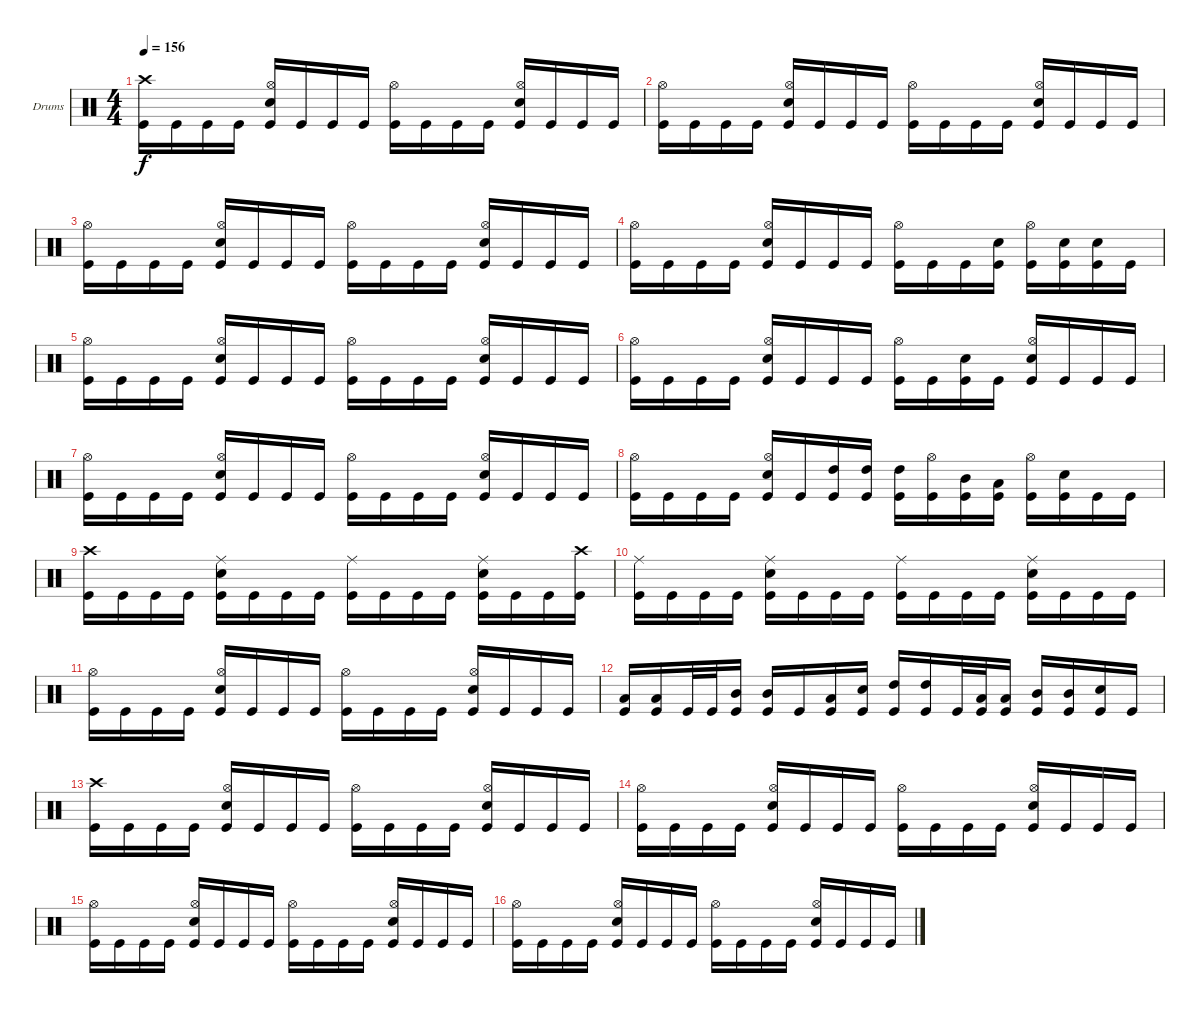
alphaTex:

\bracketExtendMode groupsimilarinstruments
\firstSystemTrackNameOrientation horizontal
\otherSystemsTrackNameOrientation horizontal
\track ("Drumkit" "Drums") {instrument percussion}
\staff {score}
\articulation defaults
\ts (4 4)
\beaming (8 2 2 2 2)
\tempo 156
\clef neutral
\ks c
("Crash high (hit)" "Kick (hit)").16{dy f} "Kick (hit)".16 "Kick (hit)".16 "Kick (hit)".16 ("Hi-Hat (open)" "Snare (hit) 2" "Kick (hit)").16 "Kick (hit)".16 "Kick (hit)".16 "Kick (hit)".16 ("Hi-Hat (open)" "Kick (hit)").16 "Kick (hit)".16 "Kick (hit)".16 "Kick (hit)".16 ("Hi-Hat (open)" "Snare (hit) 2" "Kick (hit)").16 "Kick (hit)".16 "Kick (hit)".16 "Kick (hit)".16 |
("Hi-Hat (open)" "Kick (hit)").16 "Kick (hit)".16 "Kick (hit)".16 "Kick (hit)".16 ("Hi-Hat (open)" "Snare (hit) 2" "Kick (hit)").16 "Kick (hit)".16 "Kick (hit)".16 "Kick (hit)".16 ("Hi-Hat (open)" "Kick (hit)").16 "Kick (hit)".16 "Kick (hit)".16 "Kick (hit)".16 ("Hi-Hat (open)" "Snare (hit) 2" "Kick (hit)").16 "Kick (hit)".16 "Kick (hit)".16 "Kick (hit)".16 |
("Hi-Hat (open)" "Kick (hit)").16 "Kick (hit)".16 "Kick (hit)".16 "Kick (hit)".16 ("Hi-Hat (open)" "Snare (hit) 2" "Kick (hit)").16 "Kick (hit)".16 "Kick (hit)".16 "Kick (hit)".16 ("Hi-Hat (open)" "Kick (hit)").16 "Kick (hit)".16 "Kick (hit)".16 "Kick (hit)".16 ("Hi-Hat (open)" "Snare (hit) 2" "Kick (hit)").16 "Kick (hit)".16 "Kick (hit)".16 "Kick (hit)".16 |
("Hi-Hat (open)" "Kick (hit)").16 "Kick (hit)".16 "Kick (hit)".16 "Kick (hit)".16 ("Hi-Hat (open)" "Snare (hit) 2" "Kick (hit)").16 "Kick (hit)".16 "Kick (hit)".16 "Kick (hit)".16 ("Hi-Hat (open)" "Kick (hit)").16 "Kick (hit)".16 "Kick (hit)".16 ("Snare (hit) 2" "Kick (hit)").16 ("Hi-Hat (open)" "Kick (hit)").16 ("Snare (hit) 2" "Kick (hit)").16 ("Snare (hit) 2" "Kick (hit)").16 "Kick (hit)".16 |
("Hi-Hat (open)" "Kick (hit)").16 "Kick (hit)".16 "Kick (hit)".16 "Kick (hit)".16 ("Hi-Hat (open)" "Snare (hit) 2" "Kick (hit)").16 "Kick (hit)".16 "Kick (hit)".16 "Kick (hit)".16 ("Hi-Hat (open)" "Kick (hit)").16 "Kick (hit)".16 "Kick (hit)".16 "Kick (hit)".16 ("Hi-Hat (open)" "Snare (hit) 2" "Kick (hit)").16 "Kick (hit)".16 "Kick (hit)".16 "Kick (hit)".16 |
("Hi-Hat (open)" "Kick (hit)").16 "Kick (hit)".16 "Kick (hit)".16 "Kick (hit)".16 ("Hi-Hat (open)" "Snare (hit) 2" "Kick (hit)").16 "Kick (hit)".16 "Kick (hit)".16 "Kick (hit)".16 ("Hi-Hat (open)" "Kick (hit)").16 "Kick (hit)".16 ("Snare (hit) 2" "Kick (hit)").16 "Kick (hit)".16 ("Hi-Hat (open)" "Snare (hit) 2" "Kick (hit)").16 "Kick (hit)".16 "Kick (hit)".16 "Kick (hit)".16 |
("Hi-Hat (open)" "Kick (hit)").16 "Kick (hit)".16 "Kick (hit)".16 "Kick (hit)".16 ("Hi-Hat (open)" "Snare (hit) 2" "Kick (hit)").16 "Kick (hit)".16 "Kick (hit)".16 "Kick (hit)".16 ("Hi-Hat (open)" "Kick (hit)").16 "Kick (hit)".16 "Kick (hit)".16 "Kick (hit)".16 ("Hi-Hat (open)" "Snare (hit) 2" "Kick (hit)").16 "Kick (hit)".16 "Kick (hit)".16 "Kick (hit)".16 |
("Hi-Hat (open)" "Kick (hit)").16 "Kick (hit)".16 "Kick (hit)".16 "Kick (hit)".16 ("Hi-Hat (open)" "Snare (hit) 2" "Kick (hit)").16 "Kick (hit)".16 ("High Tom (hit)" "Kick (hit)").16 ("High Tom (hit)" "Kick (hit)").16 ("High Tom (hit)" "Kick (hit)").16 ("Hi-Hat (open)" "Kick (hit)").16 ("Mid Tom (hit)" "Kick (hit)").16 ("Low Tom (hit)" "Kick (hit)").16 ("Hi-Hat (open)" "Kick (hit)").16 ("Snare (hit) 2" "Kick (hit)").16 "Kick (hit)".16 "Kick (hit)".16 |
("Crash high (hit)" "Kick (hit)").16 "Kick (hit)".16 "Kick (hit)".16 "Kick (hit)".16 ("Ride (middle)" "Snare (hit) 2" "Kick (hit)").16 "Kick (hit)".16 "Kick (hit)".16 "Kick (hit)".16 ("Ride (middle)" "Kick (hit)").16 "Kick (hit)".16 "Kick (hit)".16 "Kick (hit)".16 ("Ride (middle)" "Snare (hit) 2" "Kick (hit)").16 "Kick (hit)".16 "Kick (hit)".16 ("Crash high (hit)" "Kick (hit)").16 |
("Ride (middle)" "Kick (hit)").16 "Kick (hit)".16 "Kick (hit)".16 "Kick (hit)".16 ("Ride (middle)" "Snare (hit) 2" "Kick (hit)").16 "Kick (hit)".16 "Kick (hit)".16 "Kick (hit)".16 ("Ride (middle)" "Kick (hit)").16 "Kick (hit)".16 "Kick (hit)".16 "Kick (hit)".16 ("Ride (middle)" "Snare (hit) 2" "Kick (hit)").16 "Kick (hit)".16 "Kick (hit)".16 "Kick (hit)".16 |
("Hi-Hat (open)" "Kick (hit)").16 "Kick (hit)".16 "Kick (hit)".16 "Kick (hit)".16 ("Hi-Hat (open)" "Snare (hit) 2" "Kick (hit)").16 "Kick (hit)".16 "Kick (hit)".16 "Kick (hit)".16 ("Hi-Hat (open)" "Kick (hit)").16 "Kick (hit)".16 "Kick (hit)".16 "Kick (hit)".16 ("Hi-Hat (open)" "Snare (hit) 2" "Kick (hit)").16 "Kick (hit)".16 "Kick (hit)".16 "Kick (hit)".16 |
("Low Tom (hit)" "Kick (hit)").16 ("Low Tom (hit)" "Kick (hit)").16 "Kick (hit)".32 "Kick (hit)".32 ("Mid Tom (hit)" "Kick (hit)").16 ("Mid Tom (hit)" "Kick (hit)").16 "Kick (hit)".16 ("Low Tom (hit)" "Kick (hit)").16 ("Snare (hit) 2" "Kick (hit)").16 ("High Tom (hit)" "Kick (hit)").16 ("High Tom (hit)" "Kick (hit)").16 "Kick (hit)".32 ("Low Tom (hit)" "Kick (hit)").32 ("Low Tom (hit)" "Kick (hit)").16 ("Mid Tom (hit)" "Kick (hit)").16 ("Mid Tom (hit)" "Kick (hit)").16 ("Snare (hit) 2" "Kick (hit)").16 "Kick (hit)".16 |
("Crash high (hit)" "Kick (hit)").16 "Kick (hit)".16 "Kick (hit)".16 "Kick (hit)".16 ("Hi-Hat (open)" "Snare (hit) 2" "Kick (hit)").16 "Kick (hit)".16 "Kick (hit)".16 "Kick (hit)".16 ("Hi-Hat (open)" "Kick (hit)").16 "Kick (hit)".16 "Kick (hit)".16 "Kick (hit)".16 ("Hi-Hat (open)" "Snare (hit) 2" "Kick (hit)").16 "Kick (hit)".16 "Kick (hit)".16 "Kick (hit)".16 |
("Hi-Hat (open)" "Kick (hit)").16 "Kick (hit)".16 "Kick (hit)".16 "Kick (hit)".16 ("Hi-Hat (open)" "Snare (hit) 2" "Kick (hit)").16 "Kick (hit)".16 "Kick (hit)".16 "Kick (hit)".16 ("Hi-Hat (open)" "Kick (hit)").16 "Kick (hit)".16 "Kick (hit)".16 "Kick (hit)".16 ("Hi-Hat (open)" "Snare (hit) 2" "Kick (hit)").16 "Kick (hit)".16 "Kick (hit)".16 "Kick (hit)".16 |
("Hi-Hat (open)" "Kick (hit)").16 "Kick (hit)".16 "Kick (hit)".16 "Kick (hit)".16 ("Hi-Hat (open)" "Snare (hit) 2" "Kick (hit)").16 "Kick (hit)".16 "Kick (hit)".16 "Kick (hit)".16 ("Hi-Hat (open)" "Kick (hit)").16 "Kick (hit)".16 "Kick (hit)".16 "Kick (hit)".16 ("Hi-Hat (open)" "Snare (hit) 2" "Kick (hit)").16 "Kick (hit)".16 "Kick (hit)".16 "Kick (hit)".16 |
("Hi-Hat (open)" "Kick (hit)").16 "Kick (hit)".16 "Kick (hit)".16 "Kick (hit)".16 ("Hi-Hat (open)" "Snare (hit) 2" "Kick (hit)").16 "Kick (hit)".16 "Kick (hit)".16 "Kick (hit)".16 ("Hi-Hat (open)" "Kick (hit)").16 "Kick (hit)".16 "Kick (hit)".16 "Kick (hit)".16 ("Hi-Hat (open)" "Snare (hit) 2" "Kick (hit)").16 "Kick (hit)".16 "Kick (hit)".16 "Kick (hit)".16
